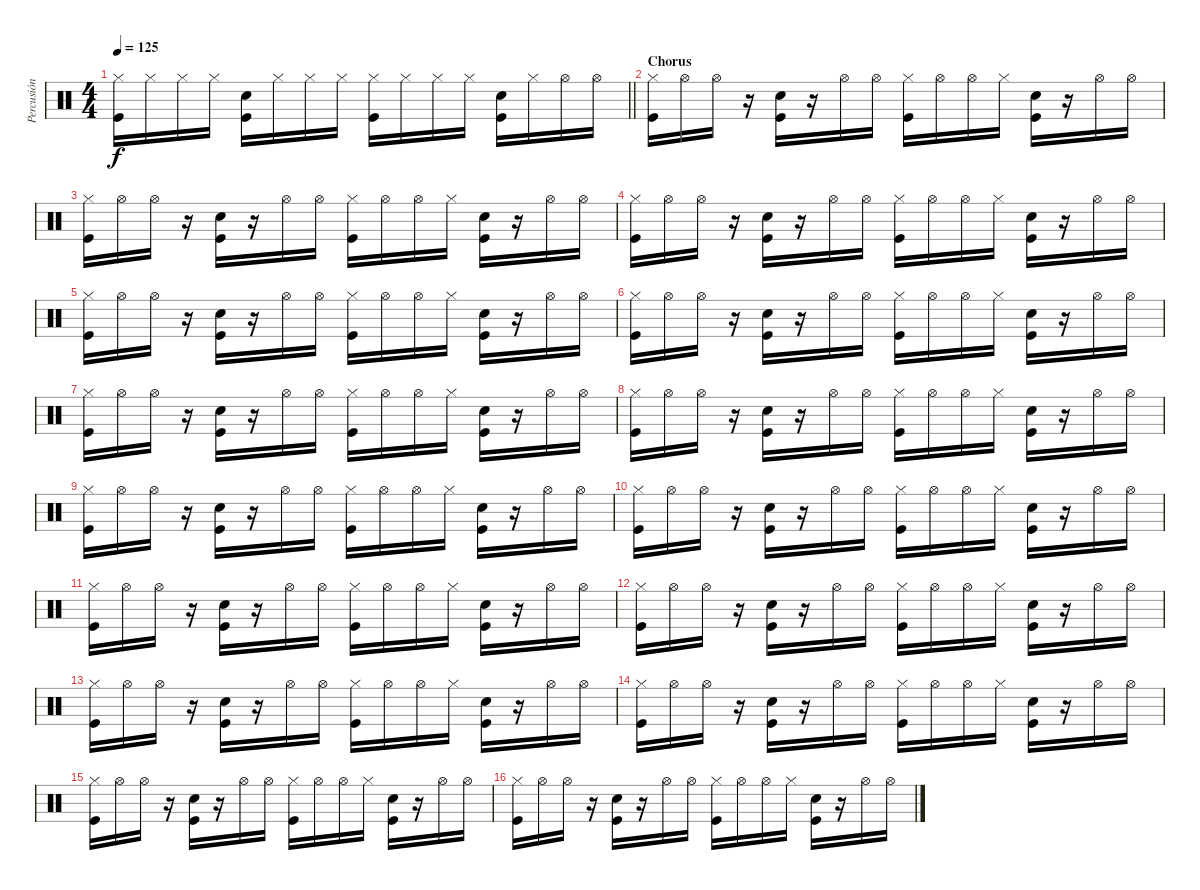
\track ("Percusión" "Percusión") {instrument percussion}
\staff {score}
\articulation defaults
\ts (4 4)
\tempo 125
\clef neutral
\barLineRight lightlight
\ks c
("Hi-Hat (closed)" "Kick (hit)").16{dy f} "Hi-Hat (closed)".16 "Hi-Hat (closed)".16 "Hi-Hat (closed)".16 ("Snare (hit) 2" "Kick (hit)").16 "Hi-Hat (closed)".16 "Hi-Hat (closed)".16 "Hi-Hat (closed)".16 ("Hi-Hat (closed)" "Kick (hit)").16 "Hi-Hat (closed)".16 "Hi-Hat (closed)".16 "Hi-Hat (closed)".16 ("Snare (hit) 2" "Kick (hit)").16 "Hi-Hat (closed)".16 "Hi-Hat (open)".16 "Hi-Hat (open)".16 |
\section ("" "Chorus")
("Hi-Hat (closed)" "Kick (hit)").16 "Hi-Hat (open)".16 "Hi-Hat (open)".16 r.16 ("Snare (hit) 2" "Kick (hit)").16 r.16 "Hi-Hat (open)".16 "Hi-Hat (open)".16 ("Hi-Hat (closed)" "Kick (hit)").16 "Hi-Hat (open)".16 "Hi-Hat (open)".16 "Hi-Hat (closed)".16 ("Snare (hit) 2" "Kick (hit)").16 r.16 "Hi-Hat (open)".16 "Hi-Hat (open)".16 |
("Hi-Hat (closed)" "Kick (hit)").16 "Hi-Hat (open)".16 "Hi-Hat (open)".16 r.16 ("Snare (hit) 2" "Kick (hit)").16 r.16 "Hi-Hat (open)".16 "Hi-Hat (open)".16 ("Hi-Hat (closed)" "Kick (hit)").16 "Hi-Hat (open)".16 "Hi-Hat (open)".16 "Hi-Hat (closed)".16 ("Snare (hit) 2" "Kick (hit)").16 r.16 "Hi-Hat (open)".16 "Hi-Hat (open)".16 |
("Hi-Hat (closed)" "Kick (hit)").16 "Hi-Hat (open)".16 "Hi-Hat (open)".16 r.16 ("Snare (hit) 2" "Kick (hit)").16 r.16 "Hi-Hat (open)".16 "Hi-Hat (open)".16 ("Hi-Hat (closed)" "Kick (hit)").16 "Hi-Hat (open)".16 "Hi-Hat (open)".16 "Hi-Hat (closed)".16 ("Snare (hit) 2" "Kick (hit)").16 r.16 "Hi-Hat (open)".16 "Hi-Hat (open)".16 |
("Hi-Hat (closed)" "Kick (hit)").16 "Hi-Hat (open)".16 "Hi-Hat (open)".16 r.16 ("Snare (hit) 2" "Kick (hit)").16 r.16 "Hi-Hat (open)".16 "Hi-Hat (open)".16 ("Hi-Hat (closed)" "Kick (hit)").16 "Hi-Hat (open)".16 "Hi-Hat (open)".16 "Hi-Hat (closed)".16 ("Snare (hit) 2" "Kick (hit)").16 r.16 "Hi-Hat (open)".16 "Hi-Hat (open)".16 |
("Hi-Hat (closed)" "Kick (hit)").16 "Hi-Hat (open)".16 "Hi-Hat (open)".16 r.16 ("Snare (hit) 2" "Kick (hit)").16 r.16 "Hi-Hat (open)".16 "Hi-Hat (open)".16 ("Hi-Hat (closed)" "Kick (hit)").16 "Hi-Hat (open)".16 "Hi-Hat (open)".16 "Hi-Hat (closed)".16 ("Snare (hit) 2" "Kick (hit)").16 r.16 "Hi-Hat (open)".16 "Hi-Hat (open)".16 |
("Hi-Hat (closed)" "Kick (hit)").16 "Hi-Hat (open)".16 "Hi-Hat (open)".16 r.16 ("Snare (hit) 2" "Kick (hit)").16 r.16 "Hi-Hat (open)".16 "Hi-Hat (open)".16 ("Hi-Hat (closed)" "Kick (hit)").16 "Hi-Hat (open)".16 "Hi-Hat (open)".16 "Hi-Hat (closed)".16 ("Snare (hit) 2" "Kick (hit)").16 r.16 "Hi-Hat (open)".16 "Hi-Hat (open)".16 |
("Hi-Hat (closed)" "Kick (hit)").16 "Hi-Hat (open)".16 "Hi-Hat (open)".16 r.16 ("Snare (hit) 2" "Kick (hit)").16 r.16 "Hi-Hat (open)".16 "Hi-Hat (open)".16 ("Hi-Hat (closed)" "Kick (hit)").16 "Hi-Hat (open)".16 "Hi-Hat (open)".16 "Hi-Hat (closed)".16 ("Snare (hit) 2" "Kick (hit)").16 r.16 "Hi-Hat (open)".16 "Hi-Hat (open)".16 |
("Hi-Hat (closed)" "Kick (hit)").16 "Hi-Hat (open)".16 "Hi-Hat (open)".16 r.16 ("Snare (hit) 2" "Kick (hit)").16 r.16 "Hi-Hat (open)".16 "Hi-Hat (open)".16 ("Hi-Hat (closed)" "Kick (hit)").16 "Hi-Hat (open)".16 "Hi-Hat (open)".16 "Hi-Hat (closed)".16 ("Snare (hit) 2" "Kick (hit)").16 r.16 "Hi-Hat (open)".16 "Hi-Hat (open)".16 |
("Hi-Hat (closed)" "Kick (hit)").16 "Hi-Hat (open)".16 "Hi-Hat (open)".16 r.16 ("Snare (hit) 2" "Kick (hit)").16 r.16 "Hi-Hat (open)".16 "Hi-Hat (open)".16 ("Hi-Hat (closed)" "Kick (hit)").16 "Hi-Hat (open)".16 "Hi-Hat (open)".16 "Hi-Hat (closed)".16 ("Snare (hit) 2" "Kick (hit)").16 r.16 "Hi-Hat (open)".16 "Hi-Hat (open)".16 |
("Hi-Hat (closed)" "Kick (hit)").16 "Hi-Hat (open)".16 "Hi-Hat (open)".16 r.16 ("Snare (hit) 2" "Kick (hit)").16 r.16 "Hi-Hat (open)".16 "Hi-Hat (open)".16 ("Hi-Hat (closed)" "Kick (hit)").16 "Hi-Hat (open)".16 "Hi-Hat (open)".16 "Hi-Hat (closed)".16 ("Snare (hit) 2" "Kick (hit)").16 r.16 "Hi-Hat (open)".16 "Hi-Hat (open)".16 |
("Hi-Hat (closed)" "Kick (hit)").16 "Hi-Hat (open)".16 "Hi-Hat (open)".16 r.16 ("Snare (hit) 2" "Kick (hit)").16 r.16 "Hi-Hat (open)".16 "Hi-Hat (open)".16 ("Hi-Hat (closed)" "Kick (hit)").16 "Hi-Hat (open)".16 "Hi-Hat (open)".16 "Hi-Hat (closed)".16 ("Snare (hit) 2" "Kick (hit)").16 r.16 "Hi-Hat (open)".16 "Hi-Hat (open)".16 |
("Hi-Hat (closed)" "Kick (hit)").16 "Hi-Hat (open)".16 "Hi-Hat (open)".16 r.16 ("Snare (hit) 2" "Kick (hit)").16 r.16 "Hi-Hat (open)".16 "Hi-Hat (open)".16 ("Hi-Hat (closed)" "Kick (hit)").16 "Hi-Hat (open)".16 "Hi-Hat (open)".16 "Hi-Hat (closed)".16 ("Snare (hit) 2" "Kick (hit)").16 r.16 "Hi-Hat (open)".16 "Hi-Hat (open)".16 |
("Hi-Hat (closed)" "Kick (hit)").16 "Hi-Hat (open)".16 "Hi-Hat (open)".16 r.16 ("Snare (hit) 2" "Kick (hit)").16 r.16 "Hi-Hat (open)".16 "Hi-Hat (open)".16 ("Hi-Hat (closed)" "Kick (hit)").16 "Hi-Hat (open)".16 "Hi-Hat (open)".16 "Hi-Hat (closed)".16 ("Snare (hit) 2" "Kick (hit)").16 r.16 "Hi-Hat (open)".16 "Hi-Hat (open)".16 |
("Hi-Hat (closed)" "Kick (hit)").16 "Hi-Hat (open)".16 "Hi-Hat (open)".16 r.16 ("Snare (hit) 2" "Kick (hit)").16 r.16 "Hi-Hat (open)".16 "Hi-Hat (open)".16 ("Hi-Hat (closed)" "Kick (hit)").16 "Hi-Hat (open)".16 "Hi-Hat (open)".16 "Hi-Hat (closed)".16 ("Snare (hit) 2" "Kick (hit)").16 r.16 "Hi-Hat (open)".16 "Hi-Hat (open)".16 |
("Hi-Hat (closed)" "Kick (hit)").16 "Hi-Hat (open)".16 "Hi-Hat (open)".16 r.16 ("Snare (hit) 2" "Kick (hit)").16 r.16 "Hi-Hat (open)".16 "Hi-Hat (open)".16 ("Hi-Hat (closed)" "Kick (hit)").16 "Hi-Hat (open)".16 "Hi-Hat (open)".16 "Hi-Hat (closed)".16 ("Snare (hit) 2" "Kick (hit)").16 r.16 "Hi-Hat (open)".16 "Hi-Hat (open)".16
